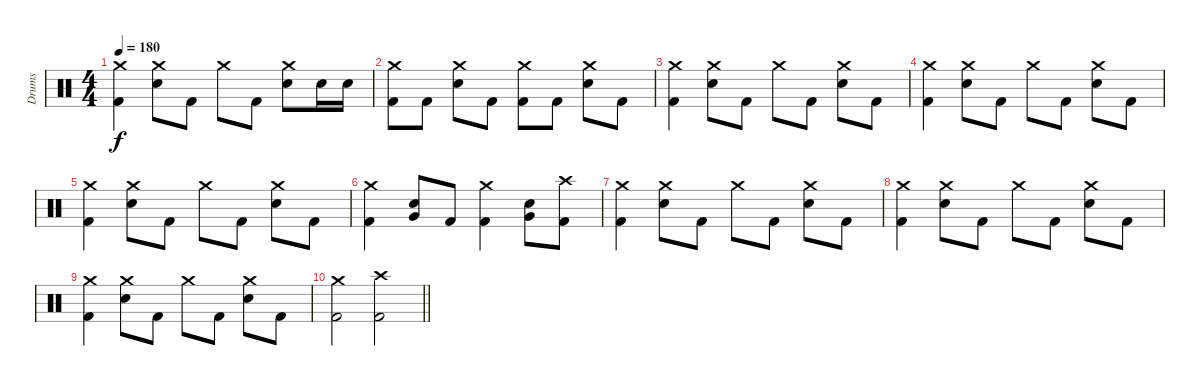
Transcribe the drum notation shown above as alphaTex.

\track ("Drums" "Drums") {instrument percussion}
\staff {score}
\articulation defaults
\ts (4 4)
\tempo 180
\clef neutral
\ks c
("Crash medium (hit)" "Kick (hit) 2").4{dy f} ("Crash medium (hit)" "Electric Snare (hit)").8 "Kick (hit) 2".8 "Crash medium (hit)".8 "Kick (hit) 2".8 ("Crash medium (hit)" "Electric Snare (hit)").8 "Electric Snare (hit)".16 "Electric Snare (hit)".16 |
("Crash medium (hit)" "Kick (hit) 2").8 "Kick (hit) 2".8 ("Crash medium (hit)" "Electric Snare (hit)").8 "Kick (hit) 2".8 ("Crash medium (hit)" "Kick (hit) 2").8 "Kick (hit) 2".8 ("Crash medium (hit)" "Electric Snare (hit)").8 "Kick (hit) 2".8 |
("Crash medium (hit)" "Kick (hit) 2").4 ("Crash medium (hit)" "Electric Snare (hit)").8 "Kick (hit) 2".8 "Crash medium (hit)".8 "Kick (hit) 2".8 ("Crash medium (hit)" "Electric Snare (hit)").8 "Kick (hit) 2".8 |
("Crash medium (hit)" "Kick (hit) 2").4 ("Crash medium (hit)" "Electric Snare (hit)").8 "Kick (hit) 2".8 "Crash medium (hit)".8 "Kick (hit) 2".8 ("Crash medium (hit)" "Electric Snare (hit)").8 "Kick (hit) 2".8 |
("Crash medium (hit)" "Kick (hit) 2").4 ("Crash medium (hit)" "Electric Snare (hit)").8 "Kick (hit) 2".8 "Crash medium (hit)".8 "Kick (hit) 2".8 ("Crash medium (hit)" "Electric Snare (hit)").8 "Kick (hit) 2".8 |
("Crash medium (hit)" "Kick (hit) 2").4 ("Very Low Tom (hit)" "Electric Snare (hit)").8 "Kick (hit) 2".8 ("Crash medium (hit)" "Kick (hit) 2").4 ("Very Low Tom (hit)" "Electric Snare (hit)").8 ("Crash high (hit)" "Kick (hit) 2").8 |
("Crash medium (hit)" "Kick (hit) 2").4 ("Crash medium (hit)" "Electric Snare (hit)").8 "Kick (hit) 2".8 "Crash medium (hit)".8 "Kick (hit) 2".8 ("Crash medium (hit)" "Electric Snare (hit)").8 "Kick (hit) 2".8 |
("Crash medium (hit)" "Kick (hit) 2").4 ("Crash medium (hit)" "Electric Snare (hit)").8 "Kick (hit) 2".8 "Crash medium (hit)".8 "Kick (hit) 2".8 ("Crash medium (hit)" "Electric Snare (hit)").8 "Kick (hit) 2".8 |
("Crash medium (hit)" "Kick (hit) 2").4 ("Crash medium (hit)" "Electric Snare (hit)").8 "Kick (hit) 2".8 "Crash medium (hit)".8 "Kick (hit) 2".8 ("Crash medium (hit)" "Electric Snare (hit)").8 "Kick (hit) 2".8 |
\barLineRight lightlight
("Crash medium (hit)" "Kick (hit) 2").2 ("Crash high (hit)" "Kick (hit) 2").2
